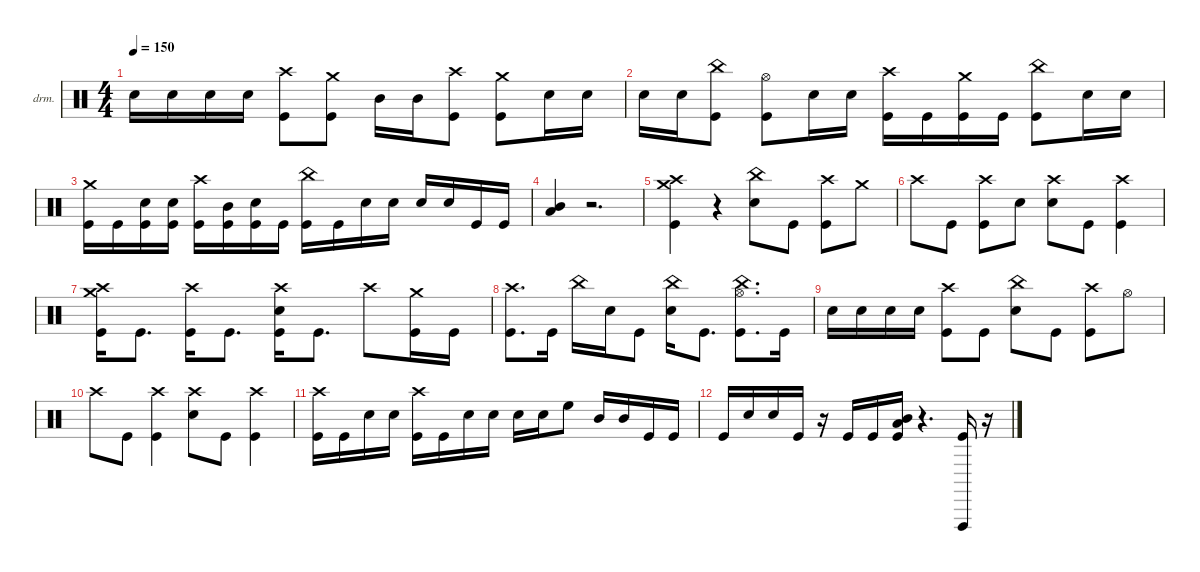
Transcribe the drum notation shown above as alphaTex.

\defaultSystemsLayout 4
\hideDynamics
\bracketExtendMode nobrackets
\firstSystemTrackNameOrientation horizontal
\track ("Drumkit" "drm.") {instrument percussion}
\staff {score}
\articulation defaults
\ts (4 4)
\tempo 150
\clef neutral
\ks c "Snare (hit) 2".16{dy fff} "Snare (hit) 2".16{dy ff} "Snare (hit) 2".16{dy fff} "Snare (hit) 2".16
("Kick (hit)" "Crash high (hit)"{acc #}).8 ("Kick (hit)" "Crash medium (hit)").8 "Mid Tom (hit)".16{dy ff} "Mid Tom (hit)".16 ("Kick (hit)" "Crash high (hit)"{acc #}).8 ("Kick (hit)" "Crash medium (hit)").8 "Snare (hit) 2".16 "Snare (hit) 2".16{dy fff} |
"Snare (hit) 2".16 "Snare (hit) 2".16 ("Kick (hit)" "China (hit)").8 ("Kick (hit)" "Hi-Hat (open)"{acc #}).8 "Snare (hit) 2".16 "Snare (hit) 2".16 ("Kick (hit)" "Crash high (hit)"{acc #}).16 "Kick (hit)".16{dy ff} ("Kick (hit)" "Crash medium (hit)").16 "Kick (hit)".16{dy fff} ("Kick (hit)" "China (hit)").8 "Snare (hit) 2".16 "Snare (hit) 2".16 |
("Kick (hit)" "Crash medium (hit)").16 "Kick (hit)".16 ("Kick (hit)" "Snare (hit) 2").16 ("Kick (hit)" "Snare (hit) 2").16 ("Kick (hit)" "Crash high (hit)"{acc #}).16 ("Kick (hit)" "Mid Tom (hit)").16 ("Kick (hit)" "Snare (hit) 2").16{dy ff} "Kick (hit)".16{dy fff} ("Kick (hit)" "China (hit)").16 "Kick (hit)".16 "Snare (hit) 2".16 "Snare (hit) 2".16 "Snare (hit) 2".16 "Snare (hit) 2".16 "Kick (hit)".16 "Kick (hit)".16 |
("Low Tom (hit)" "Mid Tom (hit)").4{dy ff} r.2{d} |
("Crash high (hit)"{acc #} "Kick (hit)" "Crash medium (hit)").4 r.4 ("Snare (hit) 2" "China (hit)").8 "Kick (hit)".8{dy fff} ("Kick (hit)" "Crash high (hit)"{acc #}).8 "Crash medium (hit)".8{dy ff} |
"Crash high (hit)"{acc #}.8 "Kick (hit)".8{dy fff} ("Kick (hit)" "Crash high (hit)"{acc #}).8 "Snare (hit) 2".8{dy p} ("Snare (hit) 2" "Crash high (hit)"{acc #}).8{dy fff} "Kick (hit)".8 ("Kick (hit)" "Crash high (hit)"{acc #}).4 |
("Kick (hit)" "Crash high (hit)"{acc #} "Crash medium (hit)").16 "Kick (hit)".8{d} ("Kick (hit)" "Crash high (hit)"{acc #}).16 "Kick (hit)".8{d} ("Kick (hit)" "Snare (hit) 2" "Crash high (hit)"{acc #}).16 "Kick (hit)".8{d} "Crash high (hit)"{acc #}.8{dy ff} ("Kick (hit)" "Crash medium (hit)").16 "Kick (hit)".16{dy fff} |
("Kick (hit)" "Crash high (hit)"{acc #}).8{d dy ff} "Kick (hit)".16{dy fff} "China (hit)".16{dy ff} "Snare (hit) 2".16{dy pp} "Kick (hit)".8{dy fff} ("Snare (hit) 2" "China (hit)").16 "Kick (hit)".8{d} ("Kick (hit)" "Hi-Hat (open)"{acc #} "China (hit)").8{d} "Kick (hit)".16 |
"Snare (hit) 2".16{dy ff} "Snare (hit) 2".16{dy fff} "Snare (hit) 2".16 "Snare (hit) 2".16 ("Kick (hit)" "Crash high (hit)"{acc #}).8 "Kick (hit)".8 ("Snare (hit) 2" "China (hit)").8 "Kick (hit)".8 ("Kick (hit)" "Crash high (hit)"{acc #}).8 "Hi-Hat (open)"{acc #}.8{dy ff} |
"Crash high (hit)"{acc #}.8 "Kick (hit)".8{dy fff} ("Kick (hit)" "Crash high (hit)"{acc #}).4 ("Snare (hit) 2" "Crash high (hit)"{acc #}).8 "Kick (hit)".8 ("Kick (hit)" "Crash high (hit)"{acc #}).4 |
("Kick (hit)" "Crash high (hit)"{acc #}).16 "Kick (hit)".16 "Snare (hit) 2".16{dy p} "Snare (hit) 2".16 ("Kick (hit)" "Crash high (hit)"{acc #}).16{dy fff} "Kick (hit)".16 "Snare (hit) 2".16{dy p} "Snare (hit) 2".16 "Snare (hit) 2".16{dy fff} "Snare (hit) 2".16 "High Floor Tom (hit)".8{dy ff} "Mid Tom (hit)".16 "Mid Tom (hit)".16 "Kick (hit)".16{dy fff} "Kick (hit)".16 |
"Kick (hit)".16 "Snare (hit) 2".16{dy p} "Snare (hit) 2".16 "Kick (hit)".16{dy fff} r.16 "Kick (hit)".16 "Kick (hit)".16 ("Kick (hit)" "Low Tom (hit)" "Mid Tom (hit)").16{dy ff} r.4{d} ("Kick (hit)" "Vibraslap (hit)"{acc #}).16 r.16
